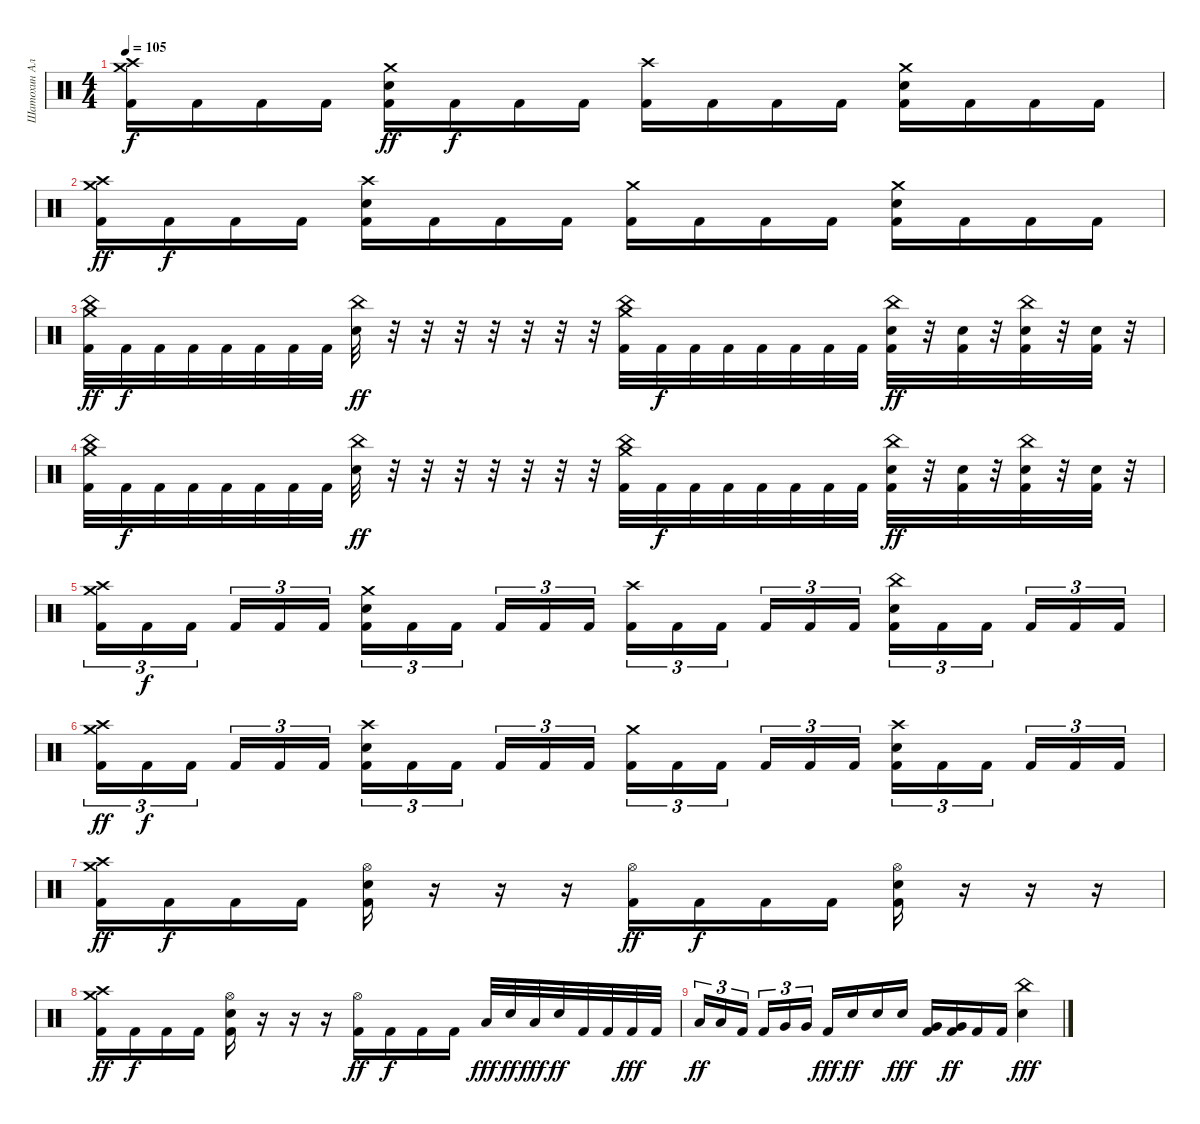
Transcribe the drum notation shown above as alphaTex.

\track ("Шатохин Алексей" "Шатохин Ал") {instrument percussion}
\staff {score}
\articulation defaults
\ts (4 4)
\tempo 105
\clef neutral
\ks c
("Crash medium (hit)" "Crash high (hit)" "Kick (hit) 2").16{dy f} "Kick (hit) 2".16 "Kick (hit) 2".16 "Kick (hit) 2".16 ("Crash medium (hit)" "Electric Snare (hit)" "Kick (hit) 2").16{dy ff} "Kick (hit) 2".16{dy f} "Kick (hit) 2".16 "Kick (hit) 2".16 ("Crash high (hit)" "Kick (hit) 2").16 "Kick (hit) 2".16 "Kick (hit) 2".16 "Kick (hit) 2".16 ("Crash medium (hit)" "Electric Snare (hit)" "Kick (hit) 2").16 "Kick (hit) 2".16 "Kick (hit) 2".16 "Kick (hit) 2".16 |
("Crash medium (hit)" "Crash high (hit)" "Kick (hit) 2").16{dy ff} "Kick (hit) 2".16{dy f} "Kick (hit) 2".16 "Kick (hit) 2".16 ("Crash high (hit)" "Electric Snare (hit)" "Kick (hit) 2").16 "Kick (hit) 2".16 "Kick (hit) 2".16 "Kick (hit) 2".16 ("Crash medium (hit)" "Kick (hit) 2").16 "Kick (hit) 2".16 "Kick (hit) 2".16 "Kick (hit) 2".16 ("Crash medium (hit)" "Electric Snare (hit)" "Kick (hit) 2").16 "Kick (hit) 2".16 "Kick (hit) 2".16 "Kick (hit) 2".16 |
("China (hit)" "Crash medium (hit)" "Kick (hit) 2").32{dy ff} "Kick (hit) 2".32{dy f} "Kick (hit) 2".32 "Kick (hit) 2".32 "Kick (hit) 2".32 "Kick (hit) 2".32 "Kick (hit) 2".32 "Kick (hit) 2".32 ("China (hit)" "Electric Snare (hit)").32{dy ff} r.32 r.32 r.32 r.32 r.32 r.32 r.32 ("Crash medium (hit)" "China (hit)" "Kick (hit) 2").32 "Kick (hit) 2".32{dy f} "Kick (hit) 2".32 "Kick (hit) 2".32 "Kick (hit) 2".32 "Kick (hit) 2".32 "Kick (hit) 2".32 "Kick (hit) 2".32 ("China (hit)" "Electric Snare (hit)" "Kick (hit) 2").32{dy ff} r.32 ("Electric Snare (hit)" "Kick (hit) 2").32 r.32 ("China (hit)" "Electric Snare (hit)" "Kick (hit) 2").32 r.32 ("Electric Snare (hit)" "Kick (hit) 2").32 r.32 |
("China (hit)" "Crash medium (hit)" "Kick (hit) 2").32 "Kick (hit) 2".32{dy f} "Kick (hit) 2".32 "Kick (hit) 2".32 "Kick (hit) 2".32 "Kick (hit) 2".32 "Kick (hit) 2".32 "Kick (hit) 2".32 ("China (hit)" "Electric Snare (hit)").32{dy ff} r.32 r.32 r.32 r.32 r.32 r.32 r.32 ("Crash medium (hit)" "China (hit)" "Kick (hit) 2").32 "Kick (hit) 2".32{dy f} "Kick (hit) 2".32 "Kick (hit) 2".32 "Kick (hit) 2".32 "Kick (hit) 2".32 "Kick (hit) 2".32 "Kick (hit) 2".32 ("China (hit)" "Electric Snare (hit)" "Kick (hit) 2").32{dy ff} r.32 ("Electric Snare (hit)" "Kick (hit) 2").32 r.32 ("China (hit)" "Electric Snare (hit)" "Kick (hit) 2").32 r.32 ("Electric Snare (hit)" "Kick (hit) 2").32 r.32 |
("Crash medium (hit)" "Crash high (hit)" "Kick (hit) 2").16{tu (3 2)} "Kick (hit) 2".16{tu (3 2) dy f} "Kick (hit) 2".16{tu (3 2) beam splitsecondary} "Kick (hit) 2".16{tu (3 2)} "Kick (hit) 2".16{tu (3 2)} "Kick (hit) 2".16{tu (3 2)} ("Crash medium (hit)" "Electric Snare (hit)" "Kick (hit) 2").16{tu (3 2)} "Kick (hit) 2".16{tu (3 2)} "Kick (hit) 2".16{tu (3 2) beam splitsecondary} "Kick (hit) 2".16{tu (3 2)} "Kick (hit) 2".16{tu (3 2)} "Kick (hit) 2".16{tu (3 2)} ("Crash high (hit)" "Kick (hit) 2").16{tu (3 2)} "Kick (hit) 2".16{tu (3 2)} "Kick (hit) 2".16{tu (3 2) beam splitsecondary} "Kick (hit) 2".16{tu (3 2)} "Kick (hit) 2".16{tu (3 2)} "Kick (hit) 2".16{tu (3 2)} ("China (hit)" "Electric Snare (hit)" "Kick (hit) 2").16{tu (3 2)} "Kick (hit) 2".16{tu (3 2)} "Kick (hit) 2".16{tu (3 2) beam splitsecondary} "Kick (hit) 2".16{tu (3 2)} "Kick (hit) 2".16{tu (3 2)} "Kick (hit) 2".16{tu (3 2)} |
("Crash medium (hit)" "Crash high (hit)" "Kick (hit) 2").16{tu (3 2) dy ff} "Kick (hit) 2".16{tu (3 2) dy f} "Kick (hit) 2".16{tu (3 2) beam splitsecondary} "Kick (hit) 2".16{tu (3 2)} "Kick (hit) 2".16{tu (3 2)} "Kick (hit) 2".16{tu (3 2)} ("Crash high (hit)" "Electric Snare (hit)" "Kick (hit) 2").16{tu (3 2)} "Kick (hit) 2".16{tu (3 2)} "Kick (hit) 2".16{tu (3 2) beam splitsecondary} "Kick (hit) 2".16{tu (3 2)} "Kick (hit) 2".16{tu (3 2)} "Kick (hit) 2".16{tu (3 2)} ("Crash medium (hit)" "Kick (hit) 2").16{tu (3 2)} "Kick (hit) 2".16{tu (3 2)} "Kick (hit) 2".16{tu (3 2) beam splitsecondary} "Kick (hit) 2".16{tu (3 2)} "Kick (hit) 2".16{tu (3 2)} "Kick (hit) 2".16{tu (3 2)} ("Crash high (hit)" "Electric Snare (hit)" "Kick (hit) 2").16{tu (3 2)} "Kick (hit) 2".16{tu (3 2)} "Kick (hit) 2".16{tu (3 2) beam splitsecondary} "Kick (hit) 2".16{tu (3 2)} "Kick (hit) 2".16{tu (3 2)} "Kick (hit) 2".16{tu (3 2)} |
("Crash medium (hit)" "Crash high (hit)" "Kick (hit) 2").16{dy ff} "Kick (hit) 2".16{dy f} "Kick (hit) 2".16 "Kick (hit) 2".16 ("Hi-Hat (open)" "Electric Snare (hit)" "Kick (hit) 2").16 r.16 r.16 r.16 ("Hi-Hat (open)" "Kick (hit) 2").16{dy ff} "Kick (hit) 2".16{dy f} "Kick (hit) 2".16 "Kick (hit) 2".16 ("Hi-Hat (open)" "Electric Snare (hit)" "Kick (hit) 2").16 r.16 r.16 r.16 |
("Crash medium (hit)" "Crash high (hit)" "Kick (hit) 2").16{dy ff} "Kick (hit) 2".16{dy f} "Kick (hit) 2".16 "Kick (hit) 2".16 ("Hi-Hat (open)" "Electric Snare (hit)" "Kick (hit) 2").16 r.16 r.16 r.16 ("Hi-Hat (open)" "Kick (hit) 2").16{dy ff} "Kick (hit) 2".16{dy f} "Kick (hit) 2".16 "Kick (hit) 2".16 "Low Floor Tom (hit)".32{dy fff} "Electric Snare (hit)".32{dy ff} "Low Floor Tom (hit)".32{dy fff} "Electric Snare (hit)".32{dy ff} "Kick (hit) 2".32 "Kick (hit) 2".32 "Kick (hit) 2".32{dy fff} "Kick (hit) 2".32 |
"Low Tom (hit)".16{tu (3 2) dy ff} "Low Tom (hit)".16{tu (3 2)} "Kick (hit) 2".16{tu (3 2) beam splitsecondary} "Kick (hit) 2".16{tu (3 2)} "Very Low Tom (hit)".16{tu (3 2)} "Very Low Tom (hit)".16{tu (3 2)} "Kick (hit) 2".16{dy fff} "Electric Snare (hit)".16{dy ff} "Electric Snare (hit)".16 "Electric Snare (hit)".16{dy fff} ("Very Low Tom (hit)" "Kick (hit) 2").16 ("Very Low Tom (hit)" "Kick (hit) 2").16{dy ff} "Kick (hit) 2".16 "Kick (hit) 2".16 ("China (hit)" "Electric Snare (hit)").4{dy fff}
